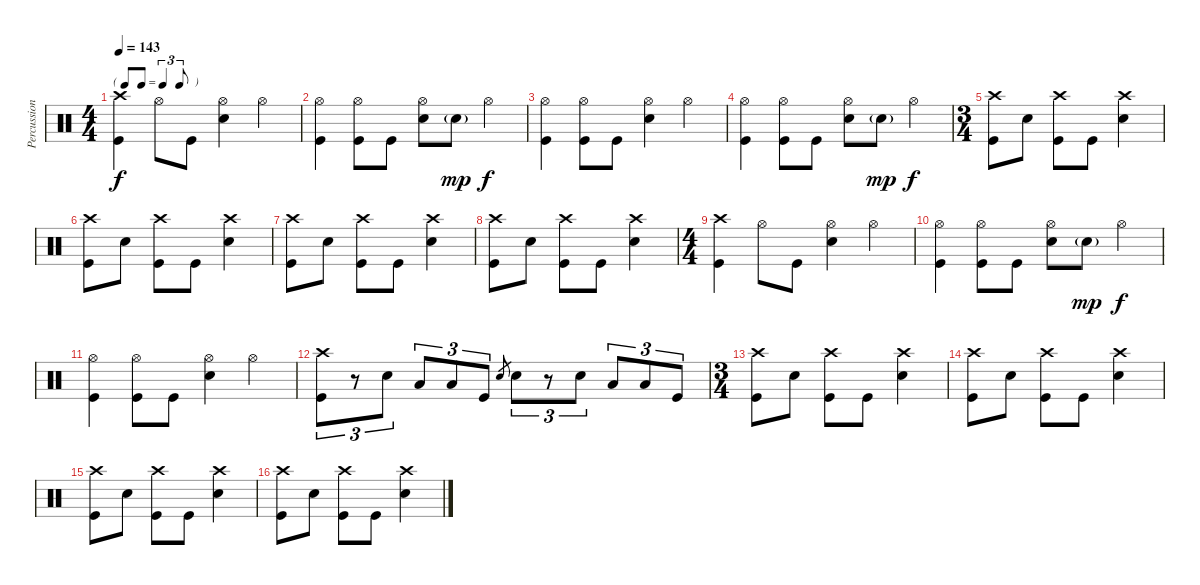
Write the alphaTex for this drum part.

\track ("Percussion" "Percussion") {instrument percussion}
\staff {score}
\articulation defaults
\ts (4 4)
\tf triplet8th
\tempo 143
\clef neutral
\ks c
("Crash high (hit)" "Kick (hit)").4{dy f} "Hi-Hat (open)".8 "Kick (hit)".8 ("Hi-Hat (open)" "Electric Snare (hit)").4 "Hi-Hat (open)".4 |
("Hi-Hat (open)" "Kick (hit)").4 ("Hi-Hat (open)" "Kick (hit)").8 "Kick (hit)".8 ("Hi-Hat (open)" "Electric Snare (hit)").8 "Electric Snare (hit)"{g}.8{dy mp} "Hi-Hat (open)".4{dy f} |
("Hi-Hat (open)" "Kick (hit)").4 ("Hi-Hat (open)" "Kick (hit)").8 "Kick (hit)".8 ("Hi-Hat (open)" "Electric Snare (hit)").4 "Hi-Hat (open)".4 |
("Hi-Hat (open)" "Kick (hit)").4 ("Hi-Hat (open)" "Kick (hit)").8 "Kick (hit)".8 ("Hi-Hat (open)" "Electric Snare (hit)").8 "Electric Snare (hit)"{g}.8{dy mp} "Hi-Hat (open)".4{dy f} |
\ts (3 4)
("Crash high (hit)" "Kick (hit)").8 "Electric Snare (hit)".8 ("Crash high (hit)" "Kick (hit)").8 "Kick (hit)".8 ("Crash high (hit)" "Electric Snare (hit)").4 |
("Crash high (hit)" "Kick (hit)").8 "Electric Snare (hit)".8 ("Crash high (hit)" "Kick (hit)").8 "Kick (hit)".8 ("Crash high (hit)" "Electric Snare (hit)").4 |
("Crash high (hit)" "Kick (hit)").8 "Electric Snare (hit)".8 ("Crash high (hit)" "Kick (hit)").8 "Kick (hit)".8 ("Crash high (hit)" "Electric Snare (hit)").4 |
("Crash high (hit)" "Kick (hit)").8 "Electric Snare (hit)".8 ("Crash high (hit)" "Kick (hit)").8 "Kick (hit)".8 ("Crash high (hit)" "Electric Snare (hit)").4 |
\ts (4 4)
("Crash high (hit)" "Kick (hit)").4 "Hi-Hat (open)".8 "Kick (hit)".8 ("Hi-Hat (open)" "Electric Snare (hit)").4 "Hi-Hat (open)".4 |
("Hi-Hat (open)" "Kick (hit)").4 ("Hi-Hat (open)" "Kick (hit)").8 "Kick (hit)".8 ("Hi-Hat (open)" "Electric Snare (hit)").8 "Electric Snare (hit)"{g}.8{dy mp} "Hi-Hat (open)".4{dy f} |
("Hi-Hat (open)" "Kick (hit)").4 ("Hi-Hat (open)" "Kick (hit)").8 "Kick (hit)".8 ("Hi-Hat (open)" "Electric Snare (hit)").4 "Hi-Hat (open)".4 |
("Crash high (hit)" "Kick (hit)").8{tu (3 2)} r.8{tu (3 2)} "Electric Snare (hit)".8{tu (3 2)} "Low Tom (hit)".8{tu (3 2)} "Low Floor Tom (hit)".8{tu (3 2)} "Kick (hit)".8{tu (3 2)} "Electric Snare (hit)".8{gr} "Electric Snare (hit)".8{tu (3 2)} r.8{tu (3 2)} "Electric Snare (hit)".8{tu (3 2)} "Low Tom (hit)".8{tu (3 2)} "Low Floor Tom (hit)".8{tu (3 2)} "Kick (hit)".8{tu (3 2)} |
\ts (3 4)
("Crash high (hit)" "Kick (hit)").8 "Electric Snare (hit)".8 ("Crash high (hit)" "Kick (hit)").8 "Kick (hit)".8 ("Crash high (hit)" "Electric Snare (hit)").4 |
("Crash high (hit)" "Kick (hit)").8 "Electric Snare (hit)".8 ("Crash high (hit)" "Kick (hit)").8 "Kick (hit)".8 ("Crash high (hit)" "Electric Snare (hit)").4 |
("Crash high (hit)" "Kick (hit)").8 "Electric Snare (hit)".8 ("Crash high (hit)" "Kick (hit)").8 "Kick (hit)".8 ("Crash high (hit)" "Electric Snare (hit)").4 |
("Crash high (hit)" "Kick (hit)").8 "Electric Snare (hit)".8 ("Crash high (hit)" "Kick (hit)").8 "Kick (hit)".8 ("Crash high (hit)" "Electric Snare (hit)").4
